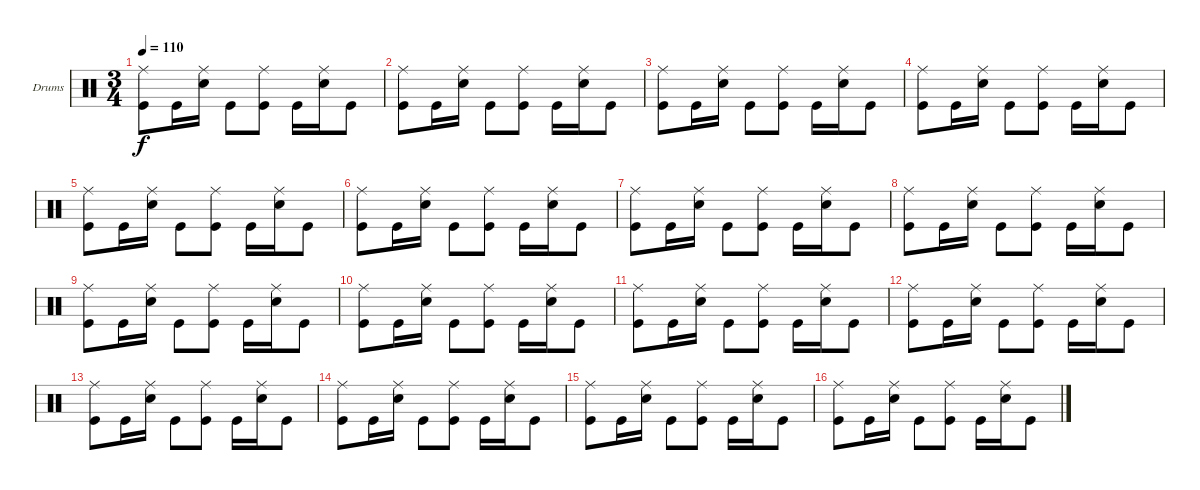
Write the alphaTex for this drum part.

\defaultSystemsLayout 4
\bracketExtendMode nobrackets
\firstSystemTrackNameOrientation horizontal
\otherSystemsTrackNameOrientation horizontal
\track ("Drumkit" "Drums") {instrument percussion}
\staff {score}
\articulation defaults
\ts (3 4)
\tempo 110
\clef neutral
\ks c
("Ride (middle)" "Kick (hit)").8{dy f} "Kick (hit)".16 ("Ride (middle)" "Snare (hit) 2").16 "Kick (hit)".8 ("Ride (middle)" "Kick (hit)").8 "Kick (hit)".16 ("Ride (middle)" "Snare (hit) 2").16 "Kick (hit)".8 |
("Ride (middle)" "Kick (hit)").8 "Kick (hit)".16 ("Ride (middle)" "Snare (hit) 2").16 "Kick (hit)".8 ("Ride (middle)" "Kick (hit)").8 "Kick (hit)".16 ("Ride (middle)" "Snare (hit) 2").16 "Kick (hit)".8 |
("Ride (middle)" "Kick (hit)").8 "Kick (hit)".16 ("Ride (middle)" "Snare (hit) 2").16 "Kick (hit)".8 ("Ride (middle)" "Kick (hit)").8 "Kick (hit)".16 ("Ride (middle)" "Snare (hit) 2").16 "Kick (hit)".8 |
("Ride (middle)" "Kick (hit)").8 "Kick (hit)".16 ("Ride (middle)" "Snare (hit) 2").16 "Kick (hit)".8 ("Ride (middle)" "Kick (hit)").8 "Kick (hit)".16 ("Ride (middle)" "Snare (hit) 2").16 "Kick (hit)".8 |
("Ride (middle)" "Kick (hit)").8 "Kick (hit)".16 ("Ride (middle)" "Snare (hit) 2").16 "Kick (hit)".8 ("Ride (middle)" "Kick (hit)").8 "Kick (hit)".16 ("Ride (middle)" "Snare (hit) 2").16 "Kick (hit)".8 |
("Ride (middle)" "Kick (hit)").8 "Kick (hit)".16 ("Ride (middle)" "Snare (hit) 2").16 "Kick (hit)".8 ("Ride (middle)" "Kick (hit)").8 "Kick (hit)".16 ("Ride (middle)" "Snare (hit) 2").16 "Kick (hit)".8 |
("Ride (middle)" "Kick (hit)").8 "Kick (hit)".16 ("Ride (middle)" "Snare (hit) 2").16 "Kick (hit)".8 ("Ride (middle)" "Kick (hit)").8 "Kick (hit)".16 ("Ride (middle)" "Snare (hit) 2").16 "Kick (hit)".8 |
("Ride (middle)" "Kick (hit)").8 "Kick (hit)".16 ("Ride (middle)" "Snare (hit) 2").16 "Kick (hit)".8 ("Ride (middle)" "Kick (hit)").8 "Kick (hit)".16 ("Ride (middle)" "Snare (hit) 2").16 "Kick (hit)".8 |
("Ride (middle)" "Kick (hit)").8 "Kick (hit)".16 ("Ride (middle)" "Snare (hit) 2").16 "Kick (hit)".8 ("Ride (middle)" "Kick (hit)").8 "Kick (hit)".16 ("Ride (middle)" "Snare (hit) 2").16 "Kick (hit)".8 |
("Ride (middle)" "Kick (hit)").8 "Kick (hit)".16 ("Ride (middle)" "Snare (hit) 2").16 "Kick (hit)".8 ("Ride (middle)" "Kick (hit)").8 "Kick (hit)".16 ("Ride (middle)" "Snare (hit) 2").16 "Kick (hit)".8 |
("Ride (middle)" "Kick (hit)").8 "Kick (hit)".16 ("Ride (middle)" "Snare (hit) 2").16 "Kick (hit)".8 ("Ride (middle)" "Kick (hit)").8 "Kick (hit)".16 ("Ride (middle)" "Snare (hit) 2").16 "Kick (hit)".8 |
("Ride (middle)" "Kick (hit)").8 "Kick (hit)".16 ("Ride (middle)" "Snare (hit) 2").16 "Kick (hit)".8 ("Ride (middle)" "Kick (hit)").8 "Kick (hit)".16 ("Ride (middle)" "Snare (hit) 2").16 "Kick (hit)".8 |
("Ride (middle)" "Kick (hit)").8 "Kick (hit)".16 ("Ride (middle)" "Snare (hit) 2").16 "Kick (hit)".8 ("Ride (middle)" "Kick (hit)").8 "Kick (hit)".16 ("Ride (middle)" "Snare (hit) 2").16 "Kick (hit)".8 |
("Ride (middle)" "Kick (hit)").8 "Kick (hit)".16 ("Ride (middle)" "Snare (hit) 2").16 "Kick (hit)".8 ("Ride (middle)" "Kick (hit)").8 "Kick (hit)".16 ("Ride (middle)" "Snare (hit) 2").16 "Kick (hit)".8 |
("Ride (middle)" "Kick (hit)").8 "Kick (hit)".16 ("Ride (middle)" "Snare (hit) 2").16 "Kick (hit)".8 ("Ride (middle)" "Kick (hit)").8 "Kick (hit)".16 ("Ride (middle)" "Snare (hit) 2").16 "Kick (hit)".8 |
("Ride (middle)" "Kick (hit)").8 "Kick (hit)".16 ("Ride (middle)" "Snare (hit) 2").16 "Kick (hit)".8 ("Ride (middle)" "Kick (hit)").8 "Kick (hit)".16 ("Ride (middle)" "Snare (hit) 2").16 "Kick (hit)".8
